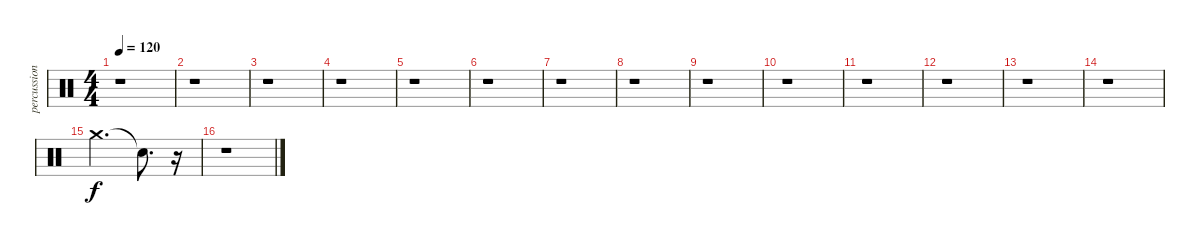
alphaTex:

\track ("percussion" "percussion") {instrument percussion}
\staff {score}
\articulation defaults
\ts (4 4)
\tempo 120
\clef neutral
\ks c
r.1{dy f} |
r.1 |
r.1 |
r.1 |
r.1 |
r.1 |
r.1 |
r.1 |
r.1 |
r.1 |
r.1 |
r.1 |
r.1 |
r.1 |
"Crash medium (hit)".2{d} "Snare (hit)"{t}.8{d} r.16 |
r.1
